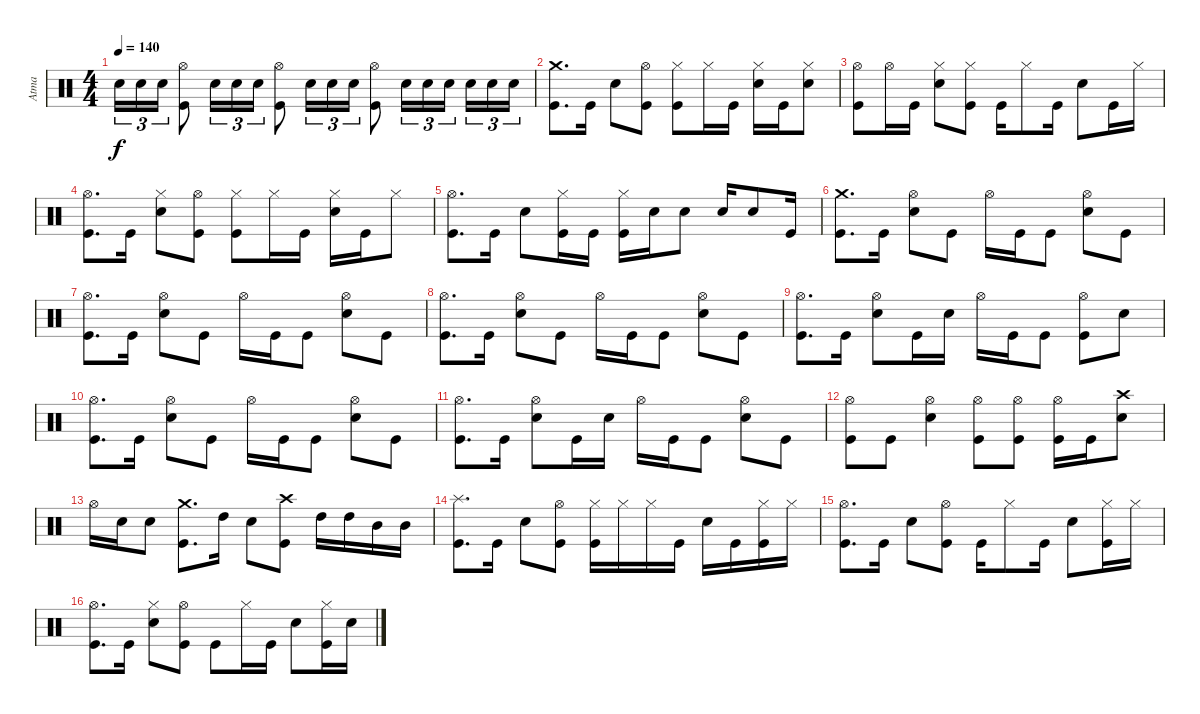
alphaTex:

\track ("Atma" "Atma") {instrument percussion}
\staff {score}
\articulation defaults
\ts (4 4)
\tempo 140
\clef neutral
\ks c "Snare (hit) 2".16{tu (3 2) dy f} "Snare (hit) 2".16{tu (3 2)} "Snare (hit) 2".16{tu (3 2)}
("Kick (hit)" "Hi-Hat (open)").8 "Snare (hit) 2".16{tu (3 2)} "Snare (hit) 2".16{tu (3 2)} "Snare (hit) 2".16{tu (3 2)} ("Kick (hit)" "Hi-Hat (open)").8 "Snare (hit) 2".16{tu (3 2)} "Snare (hit) 2".16{tu (3 2)} "Snare (hit) 2".16{tu (3 2)} ("Kick (hit)" "Hi-Hat (open)").8 "Snare (hit) 2".16{tu (3 2)} "Snare (hit) 2".16{tu (3 2)} "Snare (hit) 2".16{tu (3 2)} "Snare (hit) 2".16{tu (3 2)} "Snare (hit) 2".16{tu (3 2)} "Snare (hit) 2".16{tu (3 2)} |
("Kick (hit)" "Crash medium (hit)").8{d} "Kick (hit)".16 "Snare (hit) 2".8 ("Kick (hit)" "Hi-Hat (open)").8 ("Kick (hit)" "Hi-Hat (closed)").8 "Hi-Hat (closed)".16 "Kick (hit)".16 ("Snare (hit) 2" "Hi-Hat (closed)").16 "Kick (hit)".16 ("Snare (hit) 2" "Hi-Hat (closed)").8 |
("Kick (hit)" "Hi-Hat (open)").8 "Hi-Hat (open)".16 "Kick (hit)".16 ("Snare (hit) 2" "Hi-Hat (closed)").8 ("Kick (hit)" "Hi-Hat (closed)").8 "Kick (hit)".16 "Hi-Hat (closed)".8 "Kick (hit)".16 "Snare (hit) 2".8 "Kick (hit)".16 "Hi-Hat (closed)".16 |
("Kick (hit)" "Hi-Hat (open)").8{d} "Kick (hit)".16 ("Snare (hit) 2" "Hi-Hat (closed)").8 ("Kick (hit)" "Hi-Hat (open)").8 ("Kick (hit)" "Hi-Hat (closed)").8 "Hi-Hat (closed)".16 "Kick (hit)".16 ("Snare (hit) 2" "Hi-Hat (closed)").16 "Kick (hit)".16 "Hi-Hat (closed)".8 |
("Kick (hit)" "Hi-Hat (open)").8{d} "Kick (hit)".16 "Snare (hit) 2".8 ("Kick (hit)" "Hi-Hat (closed)").16 "Kick (hit)".16 ("Kick (hit)" "Hi-Hat (closed)").16 "Snare (hit) 2".16 "Snare (hit) 2".8 "Snare (hit) 2".16 "Snare (hit) 2".8 "Kick (hit)".16 |
("Kick (hit)" "Crash medium (hit)").8{d} "Kick (hit)".16 ("Snare (hit) 2" "Hi-Hat (open)").8 "Kick (hit)".8 "Hi-Hat (open)".16 "Kick (hit)".16 "Kick (hit)".8 ("Snare (hit) 2" "Hi-Hat (open)").8 "Kick (hit)".8 |
("Kick (hit)" "Hi-Hat (open)").8{d} "Kick (hit)".16 ("Snare (hit) 2" "Hi-Hat (open)").8 "Kick (hit)".8 "Hi-Hat (open)".16 "Kick (hit)".16 "Kick (hit)".8 ("Snare (hit) 2" "Hi-Hat (open)").8 "Kick (hit)".8 |
("Kick (hit)" "Hi-Hat (open)").8{d} "Kick (hit)".16 ("Snare (hit) 2" "Hi-Hat (open)").8 "Kick (hit)".8 "Hi-Hat (open)".16 "Kick (hit)".16 "Kick (hit)".8 ("Snare (hit) 2" "Hi-Hat (open)").8 "Kick (hit)".8 |
("Kick (hit)" "Hi-Hat (open)").8{d} "Kick (hit)".16 ("Snare (hit) 2" "Hi-Hat (open)").8 "Kick (hit)".16 "Snare (hit) 2".16 "Hi-Hat (open)".16 "Kick (hit)".16 "Kick (hit)".8 ("Kick (hit)" "Hi-Hat (open)").8 "Snare (hit) 2".8 |
("Kick (hit)" "Hi-Hat (open)").8{d} "Kick (hit)".16 ("Snare (hit) 2" "Hi-Hat (open)").8 "Kick (hit)".8 "Hi-Hat (open)".16 "Kick (hit)".16 "Kick (hit)".8 ("Snare (hit) 2" "Hi-Hat (open)").8 "Kick (hit)".8 |
("Kick (hit)" "Hi-Hat (open)").8{d} "Kick (hit)".16 ("Snare (hit) 2" "Hi-Hat (open)").8 "Kick (hit)".16 "Snare (hit) 2".16 "Hi-Hat (open)".16 "Kick (hit)".16 "Kick (hit)".8 ("Snare (hit) 2" "Hi-Hat (open)").8 "Kick (hit)".8 |
("Kick (hit)" "Hi-Hat (open)").8 "Kick (hit)".8 ("Snare (hit) 2" "Hi-Hat (open)").4 ("Kick (hit)" "Hi-Hat (open)").8 ("Kick (hit)" "Hi-Hat (open)").8 ("Kick (hit)" "Hi-Hat (open)").16 "Kick (hit)".16 ("Snare (hit) 2" "Crash high (hit)").8 |
"Hi-Hat (open)".16 "Snare (hit) 2".16 "Snare (hit) 2".8 ("Kick (hit)" "Crash medium (hit)").8{d} "High Tom (hit)".16 "Snare (hit) 2".8 ("Kick (hit)" "Crash high (hit)").8 "High Tom (hit)".16 "High Tom (hit)".16 "Mid Tom (hit)".16 "Mid Tom (hit)".16 |
("Kick (hit)" "Splash (hit)").8{d} "Kick (hit)".16 "Snare (hit) 2".8 ("Kick (hit)" "Hi-Hat (open)").8 ("Kick (hit)" "Hi-Hat (closed)").16 "Hi-Hat (closed)".16 "Hi-Hat (closed)".16 "Kick (hit)".16 "Snare (hit) 2".16 "Kick (hit)".16 ("Kick (hit)" "Hi-Hat (closed)").16 "Hi-Hat (closed)".16 |
("Kick (hit)" "Hi-Hat (open)").8{d} "Kick (hit)".16 "Snare (hit) 2".8 ("Kick (hit)" "Hi-Hat (open)").8 "Kick (hit)".16 "Hi-Hat (closed)".8 "Kick (hit)".16 "Snare (hit) 2".8 ("Kick (hit)" "Hi-Hat (closed)").16 "Hi-Hat (closed)".16 |
("Kick (hit)" "Hi-Hat (open)").8{d} "Kick (hit)".16 ("Snare (hit) 2" "Hi-Hat (closed)").8 ("Kick (hit)" "Hi-Hat (open)").8 "Kick (hit)".8 "Hi-Hat (closed)".16 "Kick (hit)".16 "Snare (hit) 2".8 ("Kick (hit)" "Hi-Hat (closed)").16 "Snare (hit) 2".16
